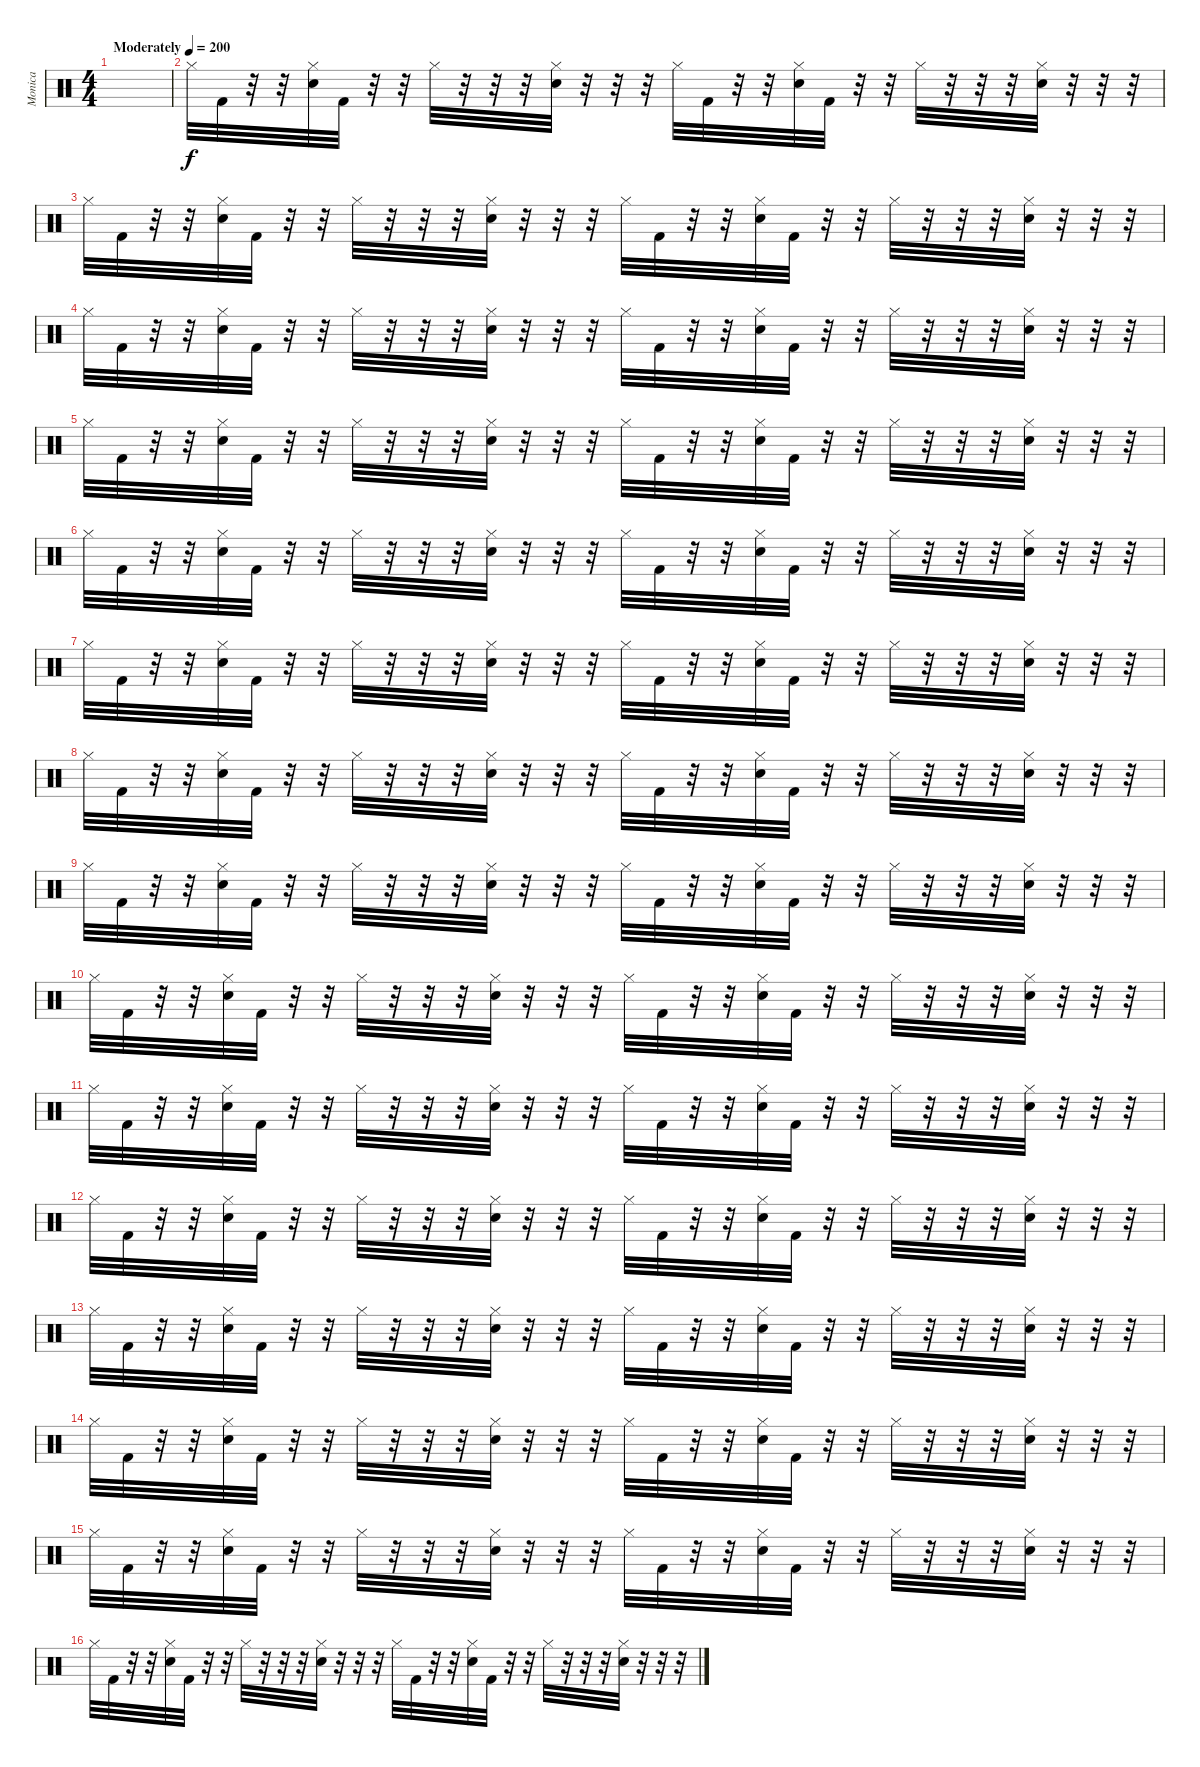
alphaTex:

\track ("Monica" "Monica") {instrument percussion}
\staff {score}
\articulation defaults
\ts (4 4)
\tempo (200 "Moderately")
\clef neutral
\ks c
|
"Hi-Hat (closed)".32 "Kick (hit) 2".32 r.32 r.32 ("Hi-Hat (closed)" "Snare (hit) 2").32 "Kick (hit) 2".32 r.32 r.32 "Hi-Hat (closed)".32 r.32 r.32 r.32 ("Hi-Hat (closed)" "Snare (hit) 2").32 r.32 r.32 r.32 "Hi-Hat (closed)".32 "Kick (hit) 2".32 r.32 r.32 ("Hi-Hat (closed)" "Snare (hit) 2").32 "Kick (hit) 2".32 r.32 r.32 "Hi-Hat (closed)".32 r.32 r.32 r.32 ("Hi-Hat (closed)" "Snare (hit) 2").32 r.32 r.32 r.32 |
"Hi-Hat (closed)".32 "Kick (hit) 2".32 r.32 r.32 ("Hi-Hat (closed)" "Snare (hit) 2").32 "Kick (hit) 2".32 r.32 r.32 "Hi-Hat (closed)".32 r.32 r.32 r.32 ("Hi-Hat (closed)" "Snare (hit) 2").32 r.32 r.32 r.32 "Hi-Hat (closed)".32 "Kick (hit) 2".32 r.32 r.32 ("Hi-Hat (closed)" "Snare (hit) 2").32 "Kick (hit) 2".32 r.32 r.32 "Hi-Hat (closed)".32 r.32 r.32 r.32 ("Hi-Hat (closed)" "Snare (hit) 2").32 r.32 r.32 r.32 |
"Hi-Hat (closed)".32 "Kick (hit) 2".32 r.32 r.32 ("Hi-Hat (closed)" "Snare (hit) 2").32 "Kick (hit) 2".32 r.32 r.32 "Hi-Hat (closed)".32 r.32 r.32 r.32 ("Hi-Hat (closed)" "Snare (hit) 2").32 r.32 r.32 r.32 "Hi-Hat (closed)".32 "Kick (hit) 2".32 r.32 r.32 ("Hi-Hat (closed)" "Snare (hit) 2").32 "Kick (hit) 2".32 r.32 r.32 "Hi-Hat (closed)".32 r.32 r.32 r.32 ("Hi-Hat (closed)" "Snare (hit) 2").32 r.32 r.32 r.32 |
"Hi-Hat (closed)".32 "Kick (hit) 2".32 r.32 r.32 ("Hi-Hat (closed)" "Snare (hit) 2").32 "Kick (hit) 2".32 r.32 r.32 "Hi-Hat (closed)".32 r.32 r.32 r.32 ("Hi-Hat (closed)" "Snare (hit) 2").32 r.32 r.32 r.32 "Hi-Hat (closed)".32 "Kick (hit) 2".32 r.32 r.32 ("Hi-Hat (closed)" "Snare (hit) 2").32 "Kick (hit) 2".32 r.32 r.32 "Hi-Hat (closed)".32 r.32 r.32 r.32 ("Hi-Hat (closed)" "Snare (hit) 2").32 r.32 r.32 r.32 |
"Hi-Hat (closed)".32 "Kick (hit) 2".32 r.32 r.32 ("Hi-Hat (closed)" "Snare (hit) 2").32 "Kick (hit) 2".32 r.32 r.32 "Hi-Hat (closed)".32 r.32 r.32 r.32 ("Hi-Hat (closed)" "Snare (hit) 2").32 r.32 r.32 r.32 "Hi-Hat (closed)".32 "Kick (hit) 2".32 r.32 r.32 ("Hi-Hat (closed)" "Snare (hit) 2").32 "Kick (hit) 2".32 r.32 r.32 "Hi-Hat (closed)".32 r.32 r.32 r.32 ("Hi-Hat (closed)" "Snare (hit) 2").32 r.32 r.32 r.32 |
"Hi-Hat (closed)".32 "Kick (hit) 2".32 r.32 r.32 ("Hi-Hat (closed)" "Snare (hit) 2").32 "Kick (hit) 2".32 r.32 r.32 "Hi-Hat (closed)".32 r.32 r.32 r.32 ("Hi-Hat (closed)" "Snare (hit) 2").32 r.32 r.32 r.32 "Hi-Hat (closed)".32 "Kick (hit) 2".32 r.32 r.32 ("Hi-Hat (closed)" "Snare (hit) 2").32 "Kick (hit) 2".32 r.32 r.32 "Hi-Hat (closed)".32 r.32 r.32 r.32 ("Hi-Hat (closed)" "Snare (hit) 2").32 r.32 r.32 r.32 |
"Hi-Hat (closed)".32 "Kick (hit) 2".32 r.32 r.32 ("Hi-Hat (closed)" "Snare (hit) 2").32 "Kick (hit) 2".32 r.32 r.32 "Hi-Hat (closed)".32 r.32 r.32 r.32 ("Hi-Hat (closed)" "Snare (hit) 2").32 r.32 r.32 r.32 "Hi-Hat (closed)".32 "Kick (hit) 2".32 r.32 r.32 ("Hi-Hat (closed)" "Snare (hit) 2").32 "Kick (hit) 2".32 r.32 r.32 "Hi-Hat (closed)".32 r.32 r.32 r.32 ("Hi-Hat (closed)" "Snare (hit) 2").32 r.32 r.32 r.32 |
"Hi-Hat (closed)".32 "Kick (hit) 2".32 r.32 r.32 ("Hi-Hat (closed)" "Snare (hit) 2").32 "Kick (hit) 2".32 r.32 r.32 "Hi-Hat (closed)".32 r.32 r.32 r.32 ("Hi-Hat (closed)" "Snare (hit) 2").32 r.32 r.32 r.32 "Hi-Hat (closed)".32 "Kick (hit) 2".32 r.32 r.32 ("Hi-Hat (closed)" "Snare (hit) 2").32 "Kick (hit) 2".32 r.32 r.32 "Hi-Hat (closed)".32 r.32 r.32 r.32 ("Hi-Hat (closed)" "Snare (hit) 2").32 r.32 r.32 r.32 |
"Hi-Hat (closed)".32 "Kick (hit) 2".32 r.32 r.32 ("Hi-Hat (closed)" "Snare (hit) 2").32 "Kick (hit) 2".32 r.32 r.32 "Hi-Hat (closed)".32 r.32 r.32 r.32 ("Hi-Hat (closed)" "Snare (hit) 2").32 r.32 r.32 r.32 "Hi-Hat (closed)".32 "Kick (hit) 2".32 r.32 r.32 ("Hi-Hat (closed)" "Snare (hit) 2").32 "Kick (hit) 2".32 r.32 r.32 "Hi-Hat (closed)".32 r.32 r.32 r.32 ("Hi-Hat (closed)" "Snare (hit) 2").32 r.32 r.32 r.32 |
"Hi-Hat (closed)".32 "Kick (hit) 2".32 r.32 r.32 ("Hi-Hat (closed)" "Snare (hit) 2").32 "Kick (hit) 2".32 r.32 r.32 "Hi-Hat (closed)".32 r.32 r.32 r.32 ("Hi-Hat (closed)" "Snare (hit) 2").32 r.32 r.32 r.32 "Hi-Hat (closed)".32 "Kick (hit) 2".32 r.32 r.32 ("Hi-Hat (closed)" "Snare (hit) 2").32 "Kick (hit) 2".32 r.32 r.32 "Hi-Hat (closed)".32 r.32 r.32 r.32 ("Hi-Hat (closed)" "Snare (hit) 2").32 r.32 r.32 r.32 |
"Hi-Hat (closed)".32 "Kick (hit) 2".32 r.32 r.32 ("Hi-Hat (closed)" "Snare (hit) 2").32 "Kick (hit) 2".32 r.32 r.32 "Hi-Hat (closed)".32 r.32 r.32 r.32 ("Hi-Hat (closed)" "Snare (hit) 2").32 r.32 r.32 r.32 "Hi-Hat (closed)".32 "Kick (hit) 2".32 r.32 r.32 ("Hi-Hat (closed)" "Snare (hit) 2").32 "Kick (hit) 2".32 r.32 r.32 "Hi-Hat (closed)".32 r.32 r.32 r.32 ("Hi-Hat (closed)" "Snare (hit) 2").32 r.32 r.32 r.32 |
"Hi-Hat (closed)".32 "Kick (hit) 2".32 r.32 r.32 ("Hi-Hat (closed)" "Snare (hit) 2").32 "Kick (hit) 2".32 r.32 r.32 "Hi-Hat (closed)".32 r.32 r.32 r.32 ("Hi-Hat (closed)" "Snare (hit) 2").32 r.32 r.32 r.32 "Hi-Hat (closed)".32 "Kick (hit) 2".32 r.32 r.32 ("Hi-Hat (closed)" "Snare (hit) 2").32 "Kick (hit) 2".32 r.32 r.32 "Hi-Hat (closed)".32 r.32 r.32 r.32 ("Hi-Hat (closed)" "Snare (hit) 2").32 r.32 r.32 r.32 |
"Hi-Hat (closed)".32 "Kick (hit) 2".32 r.32 r.32 ("Hi-Hat (closed)" "Snare (hit) 2").32 "Kick (hit) 2".32 r.32 r.32 "Hi-Hat (closed)".32 r.32 r.32 r.32 ("Hi-Hat (closed)" "Snare (hit) 2").32 r.32 r.32 r.32 "Hi-Hat (closed)".32 "Kick (hit) 2".32 r.32 r.32 ("Hi-Hat (closed)" "Snare (hit) 2").32 "Kick (hit) 2".32 r.32 r.32 "Hi-Hat (closed)".32 r.32 r.32 r.32 ("Hi-Hat (closed)" "Snare (hit) 2").32 r.32 r.32 r.32 |
"Hi-Hat (closed)".32 "Kick (hit) 2".32 r.32 r.32 ("Hi-Hat (closed)" "Snare (hit) 2").32 "Kick (hit) 2".32 r.32 r.32 "Hi-Hat (closed)".32 r.32 r.32 r.32 ("Hi-Hat (closed)" "Snare (hit) 2").32 r.32 r.32 r.32 "Hi-Hat (closed)".32 "Kick (hit) 2".32 r.32 r.32 ("Hi-Hat (closed)" "Snare (hit) 2").32 "Kick (hit) 2".32 r.32 r.32 "Hi-Hat (closed)".32 r.32 r.32 r.32 ("Hi-Hat (closed)" "Snare (hit) 2").32 r.32 r.32 r.32 |
"Hi-Hat (closed)".32 "Kick (hit) 2".32 r.32 r.32 ("Hi-Hat (closed)" "Snare (hit) 2").32 "Kick (hit) 2".32 r.32 r.32 "Hi-Hat (closed)".32 r.32 r.32 r.32 ("Hi-Hat (closed)" "Snare (hit) 2").32 r.32 r.32 r.32 "Hi-Hat (closed)".32 "Kick (hit) 2".32 r.32 r.32 ("Hi-Hat (closed)" "Snare (hit) 2").32 "Kick (hit) 2".32 r.32 r.32 "Hi-Hat (closed)".32 r.32 r.32 r.32 ("Hi-Hat (closed)" "Snare (hit) 2").32 r.32 r.32 r.32
